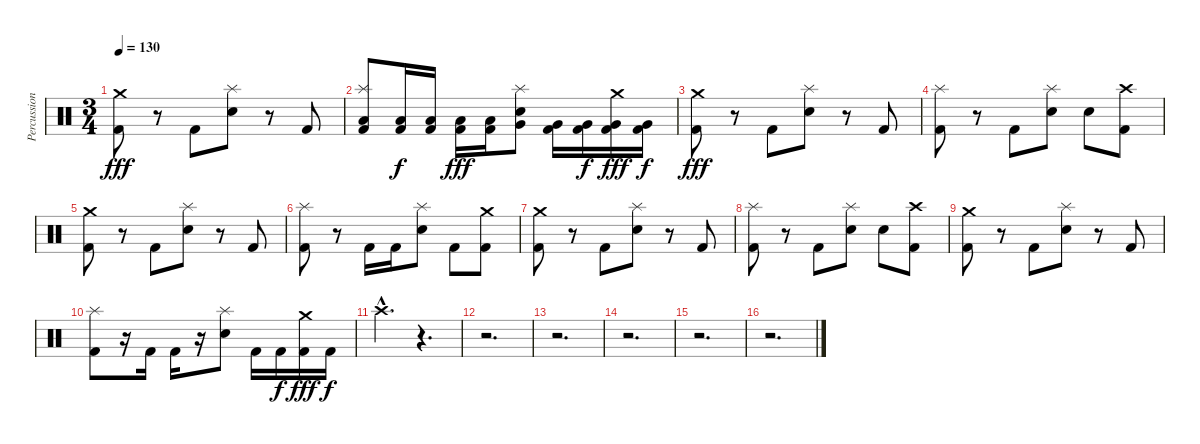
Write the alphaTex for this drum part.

\track ("Percussion" "Percussion") {instrument percussion}
\staff {score}
\articulation defaults
\ts (3 4)
\tempo 130
\clef neutral
\ks c
("Crash medium (hit)" "Kick (hit) 2").8{dy fff} r.8 "Kick (hit) 2".8 ("Splash (hit)" "Snare (hit) 2").8 r.8 "Kick (hit) 2".8 |
("Splash (hit)" "Low Tom (hit)" "Kick (hit) 2").8 ("Low Tom (hit)" "Kick (hit) 2").16{dy f} ("Low Tom (hit)" "Kick (hit) 2").16 ("Low Tom (hit)" "Kick (hit) 2").16{dy fff} ("Low Tom (hit)" "Kick (hit) 2").16 ("Splash (hit)" "Very Low Tom (hit)" "Snare (hit) 2").8 ("Very Low Tom (hit)" "Kick (hit) 2").16 ("Very Low Tom (hit)" "Kick (hit) 2").16{dy f} ("Crash medium (hit)" "Very Low Tom (hit)" "Kick (hit) 2").16{dy fff} ("Very Low Tom (hit)" "Kick (hit) 2").16{dy f} |
("Crash medium (hit)" "Kick (hit) 2").8{dy fff} r.8 "Kick (hit) 2".8 ("Splash (hit)" "Snare (hit) 2").8 r.8 "Kick (hit) 2".8 |
("Splash (hit)" "Kick (hit) 2").8 r.8 "Kick (hit) 2".8 ("Splash (hit)" "Snare (hit) 2").8 "Snare (hit) 2".8 ("Crash high (hit)" "Kick (hit) 2").8 |
("Crash medium (hit)" "Kick (hit) 2").8 r.8 "Kick (hit) 2".8 ("Splash (hit)" "Snare (hit) 2").8 r.8 "Kick (hit) 2".8 |
("Splash (hit)" "Kick (hit) 2").8 r.8 "Kick (hit) 2".16 "Kick (hit) 2".16 ("Splash (hit)" "Snare (hit) 2").8 "Kick (hit) 2".8 ("Crash medium (hit)" "Kick (hit) 2").8 |
("Crash medium (hit)" "Kick (hit) 2").8 r.8 "Kick (hit) 2".8 ("Splash (hit)" "Snare (hit) 2").8 r.8 "Kick (hit) 2".8 |
("Splash (hit)" "Kick (hit) 2").8 r.8 "Kick (hit) 2".8 ("Splash (hit)" "Snare (hit) 2").8 "Snare (hit) 2".8 ("Crash high (hit)" "Kick (hit) 2").8 |
("Crash medium (hit)" "Kick (hit) 2").8 r.8 "Kick (hit) 2".8 ("Splash (hit)" "Snare (hit) 2").8 r.8 "Kick (hit) 2".8 |
("Splash (hit)" "Kick (hit) 2").8 r.16 "Kick (hit) 2".16 "Kick (hit) 2".16 r.16 ("Splash (hit)" "Snare (hit) 2").8 "Kick (hit) 2".16 "Kick (hit) 2".16{dy f} ("Crash medium (hit)" "Kick (hit) 2").16{dy fff} "Kick (hit) 2".16{dy f} |
"Crash high (hit)"{hac}.4{d} r.4{d} |
r.2{d} |
r.2{d} |
r.2{d} |
r.2{d} |
r.2{d}
